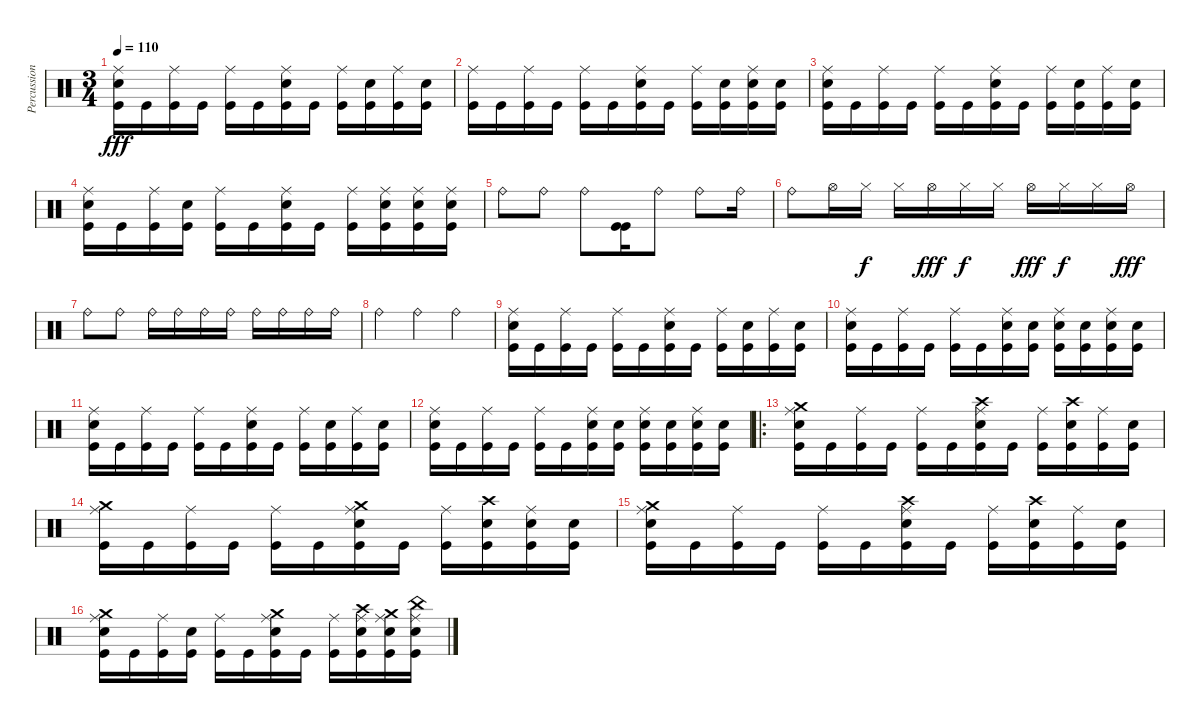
\track ("Percussions" "Percussion") {instrument percussion}
\staff {score}
\articulation defaults
\ts (3 4)
\tempo 110
\clef neutral
\ks c
("Ride (middle)" "Snare (hit) 2" "Kick (hit)").16{dy fff} "Kick (hit)".16 ("Ride (middle)" "Kick (hit)").16 "Kick (hit)".16 ("Ride (middle)" "Kick (hit)").16 "Kick (hit)".16 ("Ride (middle)" "Snare (hit) 2" "Kick (hit)").16 "Kick (hit)".16 ("Ride (middle)" "Kick (hit)").16 ("Snare (hit) 2" "Kick (hit)").16 ("Ride (middle)" "Kick (hit)").16 ("Snare (hit) 2" "Kick (hit)").16 |
("Ride (middle)" "Kick (hit)").16 "Kick (hit)".16 ("Ride (middle)" "Kick (hit)").16 "Kick (hit)".16 ("Ride (middle)" "Kick (hit)").16 "Kick (hit)".16 ("Ride (middle)" "Snare (hit) 2" "Kick (hit)").16 "Kick (hit)".16 ("Ride (middle)" "Kick (hit)").16 ("Snare (hit) 2" "Kick (hit)").16 ("Ride (middle)" "Snare (hit) 2" "Kick (hit)").16 ("Snare (hit) 2" "Kick (hit)").16 |
("Ride (middle)" "Snare (hit) 2" "Kick (hit)").16 "Kick (hit)".16 ("Ride (middle)" "Kick (hit)").16 "Kick (hit)".16 ("Ride (middle)" "Kick (hit)").16 "Kick (hit)".16 ("Ride (middle)" "Snare (hit) 2" "Kick (hit)").16 "Kick (hit)".16 ("Ride (middle)" "Kick (hit)").16 ("Snare (hit) 2" "Kick (hit)").16 ("Ride (middle)" "Kick (hit)").16 ("Snare (hit) 2" "Kick (hit)").16 |
("Ride (middle)" "Snare (hit) 2" "Kick (hit)").16 "Kick (hit)".16 ("Ride (middle)" "Kick (hit)").16 ("Snare (hit) 2" "Kick (hit)").16 ("Ride (middle)" "Kick (hit)").16 "Kick (hit)".16 ("Ride (middle)" "Snare (hit) 2" "Kick (hit)").16 "Kick (hit)".16 ("Ride (middle)" "Kick (hit)").16 ("Ride (middle)" "Snare (hit) 2" "Kick (hit)").16 ("Ride (middle)" "Snare (hit) 2" "Kick (hit)").16 ("Ride (middle)" "Snare (hit) 2" "Kick (hit)").16 |
"Ride (bell)".8 "Ride (bell)".8 "Ride (bell)".8 ("Kick (hit)" "Kick (hit)").16 "Ride (bell)".8 "Ride (bell)".8 "Ride (bell)".16 |
"Ride (bell)".8 "Hi-Hat (open)".16 "Hi-Hat (closed)".16{dy f} "Hi-Hat (closed)".16 "Hi-Hat (open)".16{dy fff} "Hi-Hat (closed)".16{dy f} "Hi-Hat (closed)".16 "Hi-Hat (open)".16{dy fff} "Hi-Hat (closed)".16{dy f} "Hi-Hat (closed)".16 "Hi-Hat (open)".16{dy fff} |
"Ride (bell)".8 "Ride (bell)".8 "Ride (bell)".16 "Ride (bell)".16 "Ride (bell)".16 "Ride (bell)".16 "Ride (bell)".16 "Ride (bell)".16 "Ride (bell)".16 "Ride (bell)".16 |
"Ride (bell)".4 "Ride (bell)".4 "Ride (bell)".4 |
("Ride (middle)" "Snare (hit) 2" "Kick (hit)").16 "Kick (hit)".16 ("Ride (middle)" "Kick (hit)").16 "Kick (hit)".16 ("Ride (middle)" "Kick (hit)").16 "Kick (hit)".16 ("Ride (middle)" "Snare (hit) 2" "Kick (hit)").16 "Kick (hit)".16 ("Ride (middle)" "Kick (hit)").16 ("Snare (hit) 2" "Kick (hit)").16 ("Ride (middle)" "Kick (hit)").16 ("Snare (hit) 2" "Kick (hit)").16 |
("Ride (middle)" "Snare (hit) 2" "Kick (hit)").16 "Kick (hit)".16 ("Ride (middle)" "Kick (hit)").16 "Kick (hit)".16 ("Ride (middle)" "Kick (hit)").16 "Kick (hit)".16 ("Ride (middle)" "Snare (hit) 2" "Kick (hit)").16 ("Snare (hit) 2" "Kick (hit)").16 ("Ride (middle)" "Snare (hit) 2" "Kick (hit)").16 ("Snare (hit) 2" "Kick (hit)").16 ("Ride (middle)" "Snare (hit) 2" "Kick (hit)").16 ("Snare (hit) 2" "Kick (hit)").16 |
("Ride (middle)" "Snare (hit) 2" "Kick (hit)").16 "Kick (hit)".16 ("Ride (middle)" "Kick (hit)").16 "Kick (hit)".16 ("Ride (middle)" "Kick (hit)").16 "Kick (hit)".16 ("Ride (middle)" "Snare (hit) 2" "Kick (hit)").16 "Kick (hit)".16 ("Ride (middle)" "Kick (hit)").16 ("Snare (hit) 2" "Kick (hit)").16 ("Ride (middle)" "Kick (hit)").16 ("Snare (hit) 2" "Kick (hit)").16 |
("Ride (middle)" "Snare (hit) 2" "Kick (hit)").16 "Kick (hit)".16 ("Ride (middle)" "Kick (hit)").16 "Kick (hit)".16 ("Ride (middle)" "Kick (hit)").16 "Kick (hit)".16 ("Ride (middle)" "Snare (hit) 2" "Kick (hit)").16 ("Snare (hit) 2" "Kick (hit)").16 ("Ride (middle)" "Snare (hit) 2" "Kick (hit)").16 ("Snare (hit) 2" "Kick (hit)").16 ("Ride (middle)" "Snare (hit) 2" "Kick (hit)").16 ("Snare (hit) 2" "Kick (hit)").16 |
\ro
("Crash medium (hit)" "Ride (middle)" "Snare (hit) 2" "Kick (hit)").16 "Kick (hit)".16 ("Ride (middle)" "Kick (hit)").16 "Kick (hit)".16 ("Ride (middle)" "Kick (hit)").16 "Kick (hit)".16 ("Crash high (hit)" "Ride (middle)" "Snare (hit) 2" "Kick (hit)").16 "Kick (hit)".16 ("Ride (middle)" "Kick (hit)").16 ("Crash high (hit)" "Snare (hit) 2" "Kick (hit)").16 ("Ride (middle)" "Kick (hit)").16 ("Snare (hit) 2" "Kick (hit)").16 |
("Crash medium (hit)" "Ride (middle)" "Kick (hit)").16 "Kick (hit)".16 ("Ride (middle)" "Kick (hit)").16 "Kick (hit)".16 ("Ride (middle)" "Kick (hit)").16 "Kick (hit)".16 ("Crash medium (hit)" "Ride (middle)" "Snare (hit) 2" "Kick (hit)").16 "Kick (hit)".16 ("Ride (middle)" "Kick (hit)").16 ("Crash high (hit)" "Snare (hit) 2" "Kick (hit)").16 ("Ride (middle)" "Snare (hit) 2" "Kick (hit)").16 ("Snare (hit) 2" "Kick (hit)").16 |
("Crash medium (hit)" "Ride (middle)" "Snare (hit) 2" "Kick (hit)").16 "Kick (hit)".16 ("Ride (middle)" "Kick (hit)").16 "Kick (hit)".16 ("Ride (middle)" "Kick (hit)").16 "Kick (hit)".16 ("Crash high (hit)" "Ride (middle)" "Snare (hit) 2" "Kick (hit)").16 "Kick (hit)".16 ("Ride (middle)" "Kick (hit)").16 ("Crash high (hit)" "Snare (hit) 2" "Kick (hit)").16 ("Ride (middle)" "Kick (hit)").16 ("Snare (hit) 2" "Kick (hit)").16 |
("Crash medium (hit)" "Ride (middle)" "Snare (hit) 2" "Kick (hit)").16 "Kick (hit)".16 ("Ride (middle)" "Kick (hit)").16 ("Snare (hit) 2" "Kick (hit)").16 ("Ride (middle)" "Kick (hit)").16 "Kick (hit)".16 ("Crash medium (hit)" "Ride (middle)" "Snare (hit) 2" "Kick (hit)").16 "Kick (hit)".16 ("Ride (middle)" "Kick (hit)").16 ("Crash high (hit)" "Ride (middle)" "Snare (hit) 2" "Kick (hit)").16 ("Crash medium (hit)" "Ride (middle)" "Snare (hit) 2" "Kick (hit)").16 ("China (hit)" "Ride (middle)" "Snare (hit) 2" "Kick (hit)").16
